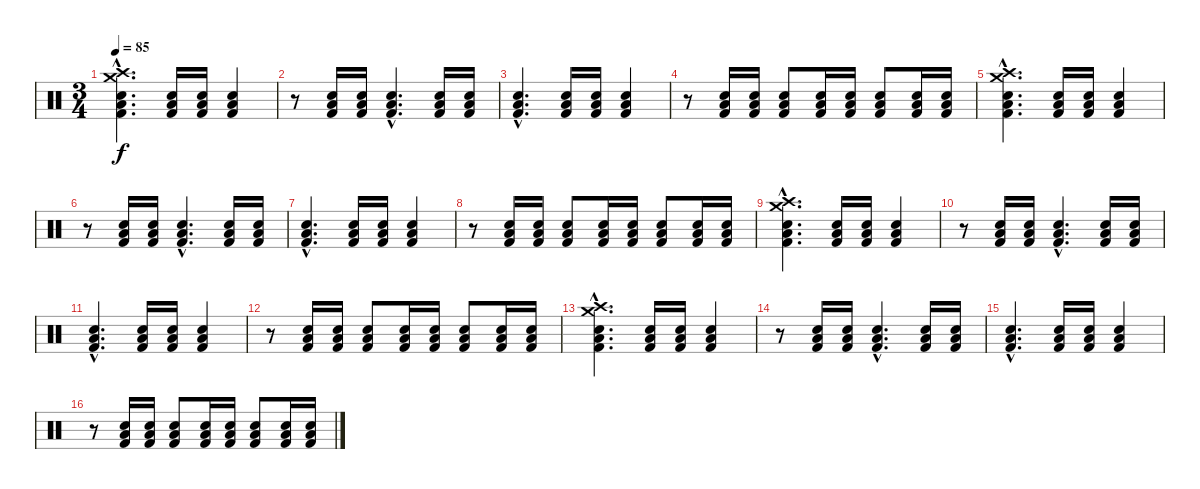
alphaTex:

\track "" {instrument percussion}
\staff {score}
\articulation defaults
\ts (3 4)
\tempo 85
\clef neutral
\ks c
("Crash high (hit)"{hac} "Crash medium (hit)"{hac} "Low Floor Tom (hit)"{hac} "Snare (hit) 2"{hac} "Kick (hit) 2"{hac}).4{d dy f} ("Low Floor Tom (hit)" "Snare (hit) 2" "Kick (hit) 2").16 ("Low Floor Tom (hit)" "Snare (hit) 2" "Kick (hit) 2").16 ("Low Floor Tom (hit)" "Snare (hit) 2" "Kick (hit) 2").4 |
r.8 ("Low Floor Tom (hit)" "Snare (hit) 2" "Kick (hit) 2").16 ("Low Floor Tom (hit)" "Snare (hit) 2" "Kick (hit) 2").16 ("Low Floor Tom (hit)"{hac} "Snare (hit) 2"{hac} "Kick (hit) 2"{hac}).4{d} ("Low Floor Tom (hit)" "Snare (hit) 2" "Kick (hit) 2").16 ("Low Floor Tom (hit)" "Snare (hit) 2" "Kick (hit) 2").16 |
("Low Floor Tom (hit)"{hac} "Snare (hit) 2"{hac} "Kick (hit) 2"{hac}).4{d} ("Low Floor Tom (hit)" "Snare (hit) 2" "Kick (hit) 2").16 ("Low Floor Tom (hit)" "Snare (hit) 2" "Kick (hit) 2").16 ("Low Floor Tom (hit)" "Snare (hit) 2" "Kick (hit) 2").4 |
r.8 ("Low Floor Tom (hit)" "Snare (hit) 2" "Kick (hit) 2").16 ("Low Floor Tom (hit)" "Snare (hit) 2" "Kick (hit) 2").16 ("Low Floor Tom (hit)" "Snare (hit) 2" "Kick (hit) 2").8 ("Low Floor Tom (hit)" "Snare (hit) 2" "Kick (hit) 2").16 ("Low Floor Tom (hit)" "Snare (hit) 2" "Kick (hit) 2").16 ("Low Floor Tom (hit)" "Snare (hit) 2" "Kick (hit) 2").8 ("Low Floor Tom (hit)" "Snare (hit) 2" "Kick (hit) 2").16 ("Low Floor Tom (hit)" "Snare (hit) 2" "Kick (hit) 2").16 |
("Crash high (hit)"{hac} "Crash medium (hit)"{hac} "Low Floor Tom (hit)"{hac} "Snare (hit) 2"{hac} "Kick (hit) 2"{hac}).4{d} ("Low Floor Tom (hit)" "Snare (hit) 2" "Kick (hit) 2").16 ("Low Floor Tom (hit)" "Snare (hit) 2" "Kick (hit) 2").16 ("Low Floor Tom (hit)" "Snare (hit) 2" "Kick (hit) 2").4 |
r.8 ("Low Floor Tom (hit)" "Snare (hit) 2" "Kick (hit) 2").16 ("Low Floor Tom (hit)" "Snare (hit) 2" "Kick (hit) 2").16 ("Low Floor Tom (hit)"{hac} "Snare (hit) 2"{hac} "Kick (hit) 2"{hac}).4{d} ("Low Floor Tom (hit)" "Snare (hit) 2" "Kick (hit) 2").16 ("Low Floor Tom (hit)" "Snare (hit) 2" "Kick (hit) 2").16 |
("Low Floor Tom (hit)"{hac} "Snare (hit) 2"{hac} "Kick (hit) 2"{hac}).4{d} ("Low Floor Tom (hit)" "Snare (hit) 2" "Kick (hit) 2").16 ("Low Floor Tom (hit)" "Snare (hit) 2" "Kick (hit) 2").16 ("Low Floor Tom (hit)" "Snare (hit) 2" "Kick (hit) 2").4 |
r.8 ("Low Floor Tom (hit)" "Snare (hit) 2" "Kick (hit) 2").16 ("Low Floor Tom (hit)" "Snare (hit) 2" "Kick (hit) 2").16 ("Low Floor Tom (hit)" "Snare (hit) 2" "Kick (hit) 2").8 ("Low Floor Tom (hit)" "Snare (hit) 2" "Kick (hit) 2").16 ("Low Floor Tom (hit)" "Snare (hit) 2" "Kick (hit) 2").16 ("Low Floor Tom (hit)" "Snare (hit) 2" "Kick (hit) 2").8 ("Low Floor Tom (hit)" "Snare (hit) 2" "Kick (hit) 2").16 ("Low Floor Tom (hit)" "Snare (hit) 2" "Kick (hit) 2").16 |
("Crash high (hit)"{hac} "Crash medium (hit)"{hac} "Low Floor Tom (hit)"{hac} "Snare (hit) 2"{hac} "Kick (hit) 2"{hac}).4{d} ("Low Floor Tom (hit)" "Snare (hit) 2" "Kick (hit) 2").16 ("Low Floor Tom (hit)" "Snare (hit) 2" "Kick (hit) 2").16 ("Low Floor Tom (hit)" "Snare (hit) 2" "Kick (hit) 2").4 |
r.8 ("Low Floor Tom (hit)" "Snare (hit) 2" "Kick (hit) 2").16 ("Low Floor Tom (hit)" "Snare (hit) 2" "Kick (hit) 2").16 ("Low Floor Tom (hit)"{hac} "Snare (hit) 2"{hac} "Kick (hit) 2"{hac}).4{d} ("Low Floor Tom (hit)" "Snare (hit) 2" "Kick (hit) 2").16 ("Low Floor Tom (hit)" "Snare (hit) 2" "Kick (hit) 2").16 |
("Low Floor Tom (hit)"{hac} "Snare (hit) 2"{hac} "Kick (hit) 2"{hac}).4{d} ("Low Floor Tom (hit)" "Snare (hit) 2" "Kick (hit) 2").16 ("Low Floor Tom (hit)" "Snare (hit) 2" "Kick (hit) 2").16 ("Low Floor Tom (hit)" "Snare (hit) 2" "Kick (hit) 2").4 |
r.8 ("Low Floor Tom (hit)" "Snare (hit) 2" "Kick (hit) 2").16 ("Low Floor Tom (hit)" "Snare (hit) 2" "Kick (hit) 2").16 ("Low Floor Tom (hit)" "Snare (hit) 2" "Kick (hit) 2").8 ("Low Floor Tom (hit)" "Snare (hit) 2" "Kick (hit) 2").16 ("Low Floor Tom (hit)" "Snare (hit) 2" "Kick (hit) 2").16 ("Low Floor Tom (hit)" "Snare (hit) 2" "Kick (hit) 2").8 ("Low Floor Tom (hit)" "Snare (hit) 2" "Kick (hit) 2").16 ("Low Floor Tom (hit)" "Snare (hit) 2" "Kick (hit) 2").16 |
("Crash high (hit)"{hac} "Crash medium (hit)"{hac} "Low Floor Tom (hit)"{hac} "Snare (hit) 2"{hac} "Kick (hit) 2"{hac}).4{d} ("Low Floor Tom (hit)" "Snare (hit) 2" "Kick (hit) 2").16 ("Low Floor Tom (hit)" "Snare (hit) 2" "Kick (hit) 2").16 ("Low Floor Tom (hit)" "Snare (hit) 2" "Kick (hit) 2").4 |
r.8 ("Low Floor Tom (hit)" "Snare (hit) 2" "Kick (hit) 2").16 ("Low Floor Tom (hit)" "Snare (hit) 2" "Kick (hit) 2").16 ("Low Floor Tom (hit)"{hac} "Snare (hit) 2"{hac} "Kick (hit) 2"{hac}).4{d} ("Low Floor Tom (hit)" "Snare (hit) 2" "Kick (hit) 2").16 ("Low Floor Tom (hit)" "Snare (hit) 2" "Kick (hit) 2").16 |
("Low Floor Tom (hit)"{hac} "Snare (hit) 2"{hac} "Kick (hit) 2"{hac}).4{d} ("Low Floor Tom (hit)" "Snare (hit) 2" "Kick (hit) 2").16 ("Low Floor Tom (hit)" "Snare (hit) 2" "Kick (hit) 2").16 ("Low Floor Tom (hit)" "Snare (hit) 2" "Kick (hit) 2").4 |
r.8 ("Low Floor Tom (hit)" "Snare (hit) 2" "Kick (hit) 2").16 ("Low Floor Tom (hit)" "Snare (hit) 2" "Kick (hit) 2").16 ("Low Floor Tom (hit)" "Snare (hit) 2" "Kick (hit) 2").8 ("Low Floor Tom (hit)" "Snare (hit) 2" "Kick (hit) 2").16 ("Low Floor Tom (hit)" "Snare (hit) 2" "Kick (hit) 2").16 ("Low Floor Tom (hit)" "Snare (hit) 2" "Kick (hit) 2").8 ("Low Floor Tom (hit)" "Snare (hit) 2" "Kick (hit) 2").16 ("Low Floor Tom (hit)" "Snare (hit) 2" "Kick (hit) 2").16
